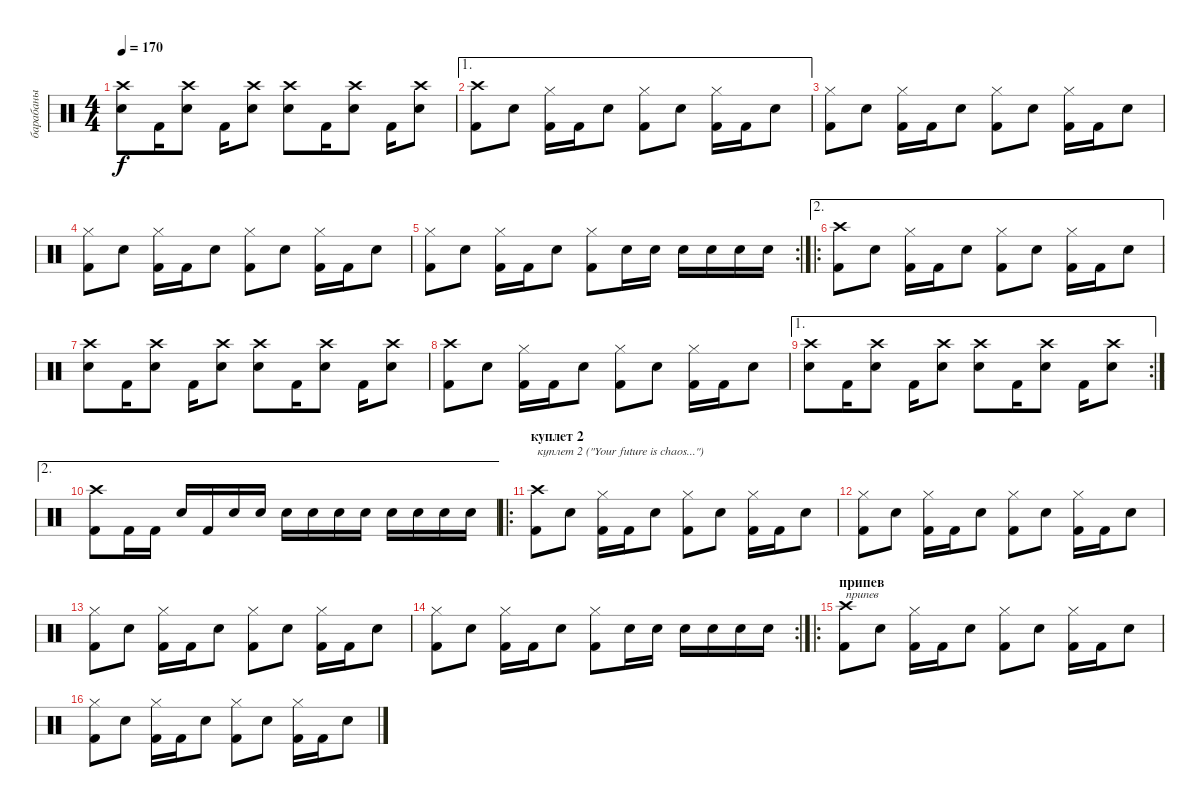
\track ("барабаны" "барабаны") {instrument percussion}
\staff {score}
\articulation defaults
\ts (4 4)
\tempo 170
\clef neutral
\ks c
("Crash high (hit)" "Snare (hit) 2").8{dy f} "Kick (hit) 2".16 ("Crash high (hit)" "Snare (hit) 2").8 "Kick (hit) 2".16 ("Crash high (hit)" "Snare (hit) 2").8 ("Crash high (hit)" "Snare (hit) 2").8 "Kick (hit) 2".16 ("Crash high (hit)" "Snare (hit) 2").8 "Kick (hit) 2".16 ("Crash high (hit)" "Snare (hit) 2").8 |
\ae 1
("Crash high (hit)" "Kick (hit) 2").8 "Snare (hit) 2".8 ("Hi-Hat (closed)" "Kick (hit) 2").16 "Kick (hit) 2".16 "Snare (hit) 2".8 ("Hi-Hat (closed)" "Kick (hit) 2").8 "Snare (hit) 2".8 ("Hi-Hat (closed)" "Kick (hit) 2").16 "Kick (hit) 2".16 "Snare (hit) 2".8 |
("Hi-Hat (closed)" "Kick (hit) 2").8 "Snare (hit) 2".8 ("Hi-Hat (closed)" "Kick (hit) 2").16 "Kick (hit) 2".16 "Snare (hit) 2".8 ("Hi-Hat (closed)" "Kick (hit) 2").8 "Snare (hit) 2".8 ("Hi-Hat (closed)" "Kick (hit) 2").16 "Kick (hit) 2".16 "Snare (hit) 2".8 |
("Hi-Hat (closed)" "Kick (hit) 2").8 "Snare (hit) 2".8 ("Hi-Hat (closed)" "Kick (hit) 2").16 "Kick (hit) 2".16 "Snare (hit) 2".8 ("Hi-Hat (closed)" "Kick (hit) 2").8 "Snare (hit) 2".8 ("Hi-Hat (closed)" "Kick (hit) 2").16 "Kick (hit) 2".16 "Snare (hit) 2".8 |
\rc 2
("Hi-Hat (closed)" "Kick (hit) 2").8 "Snare (hit) 2".8 ("Hi-Hat (closed)" "Kick (hit) 2").16 "Kick (hit) 2".16 "Snare (hit) 2".8 ("Hi-Hat (closed)" "Kick (hit) 2").8 "Snare (hit) 2".16 "Snare (hit) 2".16 "Snare (hit) 2".16 "Snare (hit) 2".16 "Snare (hit) 2".16 "Snare (hit) 2".16 |
\ae 2
\ro
("Crash high (hit)" "Kick (hit) 2").8 "Snare (hit) 2".8 ("Hi-Hat (closed)" "Kick (hit) 2").16 "Kick (hit) 2".16 "Snare (hit) 2".8 ("Hi-Hat (closed)" "Kick (hit) 2").8 "Snare (hit) 2".8 ("Hi-Hat (closed)" "Kick (hit) 2").16 "Kick (hit) 2".16 "Snare (hit) 2".8 |
("Crash high (hit)" "Snare (hit) 2").8 "Kick (hit) 2".16 ("Crash high (hit)" "Snare (hit) 2").8 "Kick (hit) 2".16 ("Crash high (hit)" "Snare (hit) 2").8 ("Crash high (hit)" "Snare (hit) 2").8 "Kick (hit) 2".16 ("Crash high (hit)" "Snare (hit) 2").8 "Kick (hit) 2".16 ("Crash high (hit)" "Snare (hit) 2").8 |
("Crash high (hit)" "Kick (hit) 2").8 "Snare (hit) 2".8 ("Hi-Hat (closed)" "Kick (hit) 2").16 "Kick (hit) 2".16 "Snare (hit) 2".8 ("Hi-Hat (closed)" "Kick (hit) 2").8 "Snare (hit) 2".8 ("Hi-Hat (closed)" "Kick (hit) 2").16 "Kick (hit) 2".16 "Snare (hit) 2".8 |
\ae 1
\rc 2
("Crash high (hit)" "Snare (hit) 2").8 "Kick (hit) 2".16 ("Crash high (hit)" "Snare (hit) 2").8 "Kick (hit) 2".16 ("Crash high (hit)" "Snare (hit) 2").8 ("Crash high (hit)" "Snare (hit) 2").8 "Kick (hit) 2".16 ("Crash high (hit)" "Snare (hit) 2").8 "Kick (hit) 2".16 ("Crash high (hit)" "Snare (hit) 2").8 |
\ae 2
("Crash high (hit)" "Kick (hit) 2").8 "Kick (hit) 2".16 "Kick (hit) 2".16 "Snare (hit) 2".16 "Kick (hit) 2".16 "Snare (hit) 2".16 "Snare (hit) 2".16 "Snare (hit) 2".16 "Snare (hit) 2".16 "Snare (hit) 2".16 "Snare (hit) 2".16 "Snare (hit) 2".16 "Snare (hit) 2".16 "Snare (hit) 2".16 "Snare (hit) 2".16 |
\ro
\section ("" "куплет 2")
("Crash high (hit)" "Kick (hit) 2").8{txt "куплет 2 (\"Your future is chaos...\")"} "Snare (hit) 2".8 ("Hi-Hat (closed)" "Kick (hit) 2").16 "Kick (hit) 2".16 "Snare (hit) 2".8 ("Hi-Hat (closed)" "Kick (hit) 2").8 "Snare (hit) 2".8 ("Hi-Hat (closed)" "Kick (hit) 2").16 "Kick (hit) 2".16 "Snare (hit) 2".8 |
("Hi-Hat (closed)" "Kick (hit) 2").8 "Snare (hit) 2".8 ("Hi-Hat (closed)" "Kick (hit) 2").16 "Kick (hit) 2".16 "Snare (hit) 2".8 ("Hi-Hat (closed)" "Kick (hit) 2").8 "Snare (hit) 2".8 ("Hi-Hat (closed)" "Kick (hit) 2").16 "Kick (hit) 2".16 "Snare (hit) 2".8 |
("Hi-Hat (closed)" "Kick (hit) 2").8 "Snare (hit) 2".8 ("Hi-Hat (closed)" "Kick (hit) 2").16 "Kick (hit) 2".16 "Snare (hit) 2".8 ("Hi-Hat (closed)" "Kick (hit) 2").8 "Snare (hit) 2".8 ("Hi-Hat (closed)" "Kick (hit) 2").16 "Kick (hit) 2".16 "Snare (hit) 2".8 |
\rc 2
("Hi-Hat (closed)" "Kick (hit) 2").8 "Snare (hit) 2".8 ("Hi-Hat (closed)" "Kick (hit) 2").16 "Kick (hit) 2".16 "Snare (hit) 2".8 ("Hi-Hat (closed)" "Kick (hit) 2").8 "Snare (hit) 2".16 "Snare (hit) 2".16 "Snare (hit) 2".16 "Snare (hit) 2".16 "Snare (hit) 2".16 "Snare (hit) 2".16 |
\ro
\section ("" "припев")
("Crash high (hit)" "Kick (hit) 2").8{txt "припев"} "Snare (hit) 2".8 ("Hi-Hat (closed)" "Kick (hit) 2").16 "Kick (hit) 2".16 "Snare (hit) 2".8 ("Hi-Hat (closed)" "Kick (hit) 2").8 "Snare (hit) 2".8 ("Hi-Hat (closed)" "Kick (hit) 2").16 "Kick (hit) 2".16 "Snare (hit) 2".8 |
("Hi-Hat (closed)" "Kick (hit) 2").8 "Snare (hit) 2".8 ("Hi-Hat (closed)" "Kick (hit) 2").16 "Kick (hit) 2".16 "Snare (hit) 2".8 ("Hi-Hat (closed)" "Kick (hit) 2").8 "Snare (hit) 2".8 ("Hi-Hat (closed)" "Kick (hit) 2").16 "Kick (hit) 2".16 "Snare (hit) 2".8
